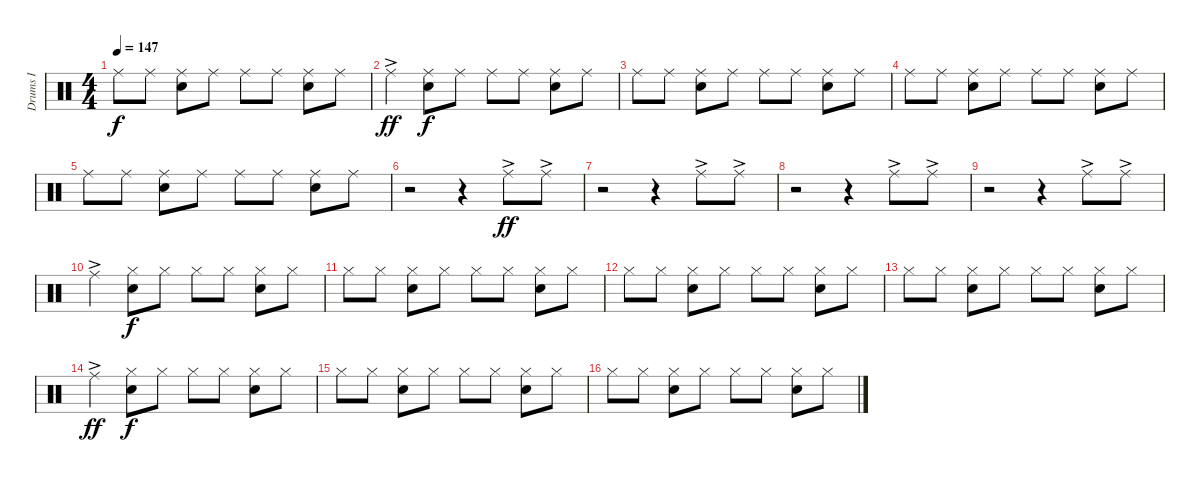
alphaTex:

\track ("Drums I" "Drums I") {instrument percussion}
\staff {score}
\articulation defaults
\ts (4 4)
\tempo 147
\clef neutral
\ks c "Ride (middle)".8{dy f} "Ride (middle)".8
("Ride (middle)" "Snare (hit) 2").8 "Ride (middle)".8 "Ride (middle)".8 "Ride (middle)".8 ("Ride (middle)" "Snare (hit) 2").8 "Ride (middle)".8 |
"Ride (middle)"{ac}.4{dy ff} ("Ride (middle)" "Snare (hit) 2").8{dy f} "Ride (middle)".8 "Ride (middle)".8 "Ride (middle)".8 ("Ride (middle)" "Snare (hit) 2").8 "Ride (middle)".8 |
"Ride (middle)".8 "Ride (middle)".8 ("Ride (middle)" "Snare (hit) 2").8 "Ride (middle)".8 "Ride (middle)".8 "Ride (middle)".8 ("Ride (middle)" "Snare (hit) 2").8 "Ride (middle)".8 |
"Ride (middle)".8 "Ride (middle)".8 ("Ride (middle)" "Snare (hit) 2").8 "Ride (middle)".8 "Ride (middle)".8 "Ride (middle)".8 ("Ride (middle)" "Snare (hit) 2").8 "Ride (middle)".8 |
"Ride (middle)".8 "Ride (middle)".8 ("Ride (middle)" "Snare (hit) 2").8 "Ride (middle)".8 "Ride (middle)".8 "Ride (middle)".8 ("Ride (middle)" "Snare (hit) 2").8 "Ride (middle)".8 |
r.2 r.4 "Ride (middle)"{ac}.8{dy ff} "Ride (middle)"{ac}.8 |
r.2 r.4 "Ride (middle)"{ac}.8 "Ride (middle)"{ac}.8 |
r.2 r.4 "Ride (middle)"{ac}.8 "Ride (middle)"{ac}.8 |
r.2 r.4 "Ride (middle)"{ac}.8 "Ride (middle)"{ac}.8 |
"Ride (middle)"{ac}.4 ("Hi-Hat (closed)" "Snare (hit) 2").8{dy f} "Hi-Hat (closed)".8 "Hi-Hat (closed)".8 "Hi-Hat (closed)".8 ("Hi-Hat (closed)" "Snare (hit) 2").8 "Hi-Hat (closed)".8 |
"Hi-Hat (closed)".8 "Hi-Hat (closed)".8 ("Hi-Hat (closed)" "Snare (hit) 2").8 "Hi-Hat (closed)".8 "Hi-Hat (closed)".8 "Hi-Hat (closed)".8 ("Hi-Hat (closed)" "Snare (hit) 2").8 "Hi-Hat (closed)".8 |
"Hi-Hat (closed)".8 "Hi-Hat (closed)".8 ("Hi-Hat (closed)" "Snare (hit) 2").8 "Hi-Hat (closed)".8 "Hi-Hat (closed)".8 "Hi-Hat (closed)".8 ("Hi-Hat (closed)" "Snare (hit) 2").8 "Hi-Hat (closed)".8 |
"Hi-Hat (closed)".8 "Hi-Hat (closed)".8 ("Hi-Hat (closed)" "Snare (hit) 2").8 "Hi-Hat (closed)".8 "Hi-Hat (closed)".8 "Hi-Hat (closed)".8 ("Hi-Hat (closed)" "Snare (hit) 2").8 "Hi-Hat (closed)".8 |
"Ride (middle)"{ac}.4{dy ff} ("Hi-Hat (closed)" "Snare (hit) 2").8{dy f} "Hi-Hat (closed)".8 "Hi-Hat (closed)".8 "Hi-Hat (closed)".8 ("Hi-Hat (closed)" "Snare (hit) 2").8 "Hi-Hat (closed)".8 |
"Hi-Hat (closed)".8 "Hi-Hat (closed)".8 ("Hi-Hat (closed)" "Snare (hit) 2").8 "Hi-Hat (closed)".8 "Hi-Hat (closed)".8 "Hi-Hat (closed)".8 ("Hi-Hat (closed)" "Snare (hit) 2").8 "Hi-Hat (closed)".8 |
"Hi-Hat (closed)".8 "Hi-Hat (closed)".8 ("Hi-Hat (closed)" "Snare (hit) 2").8 "Hi-Hat (closed)".8 "Hi-Hat (closed)".8 "Hi-Hat (closed)".8 ("Hi-Hat (closed)" "Snare (hit) 2").8 "Hi-Hat (closed)".8
